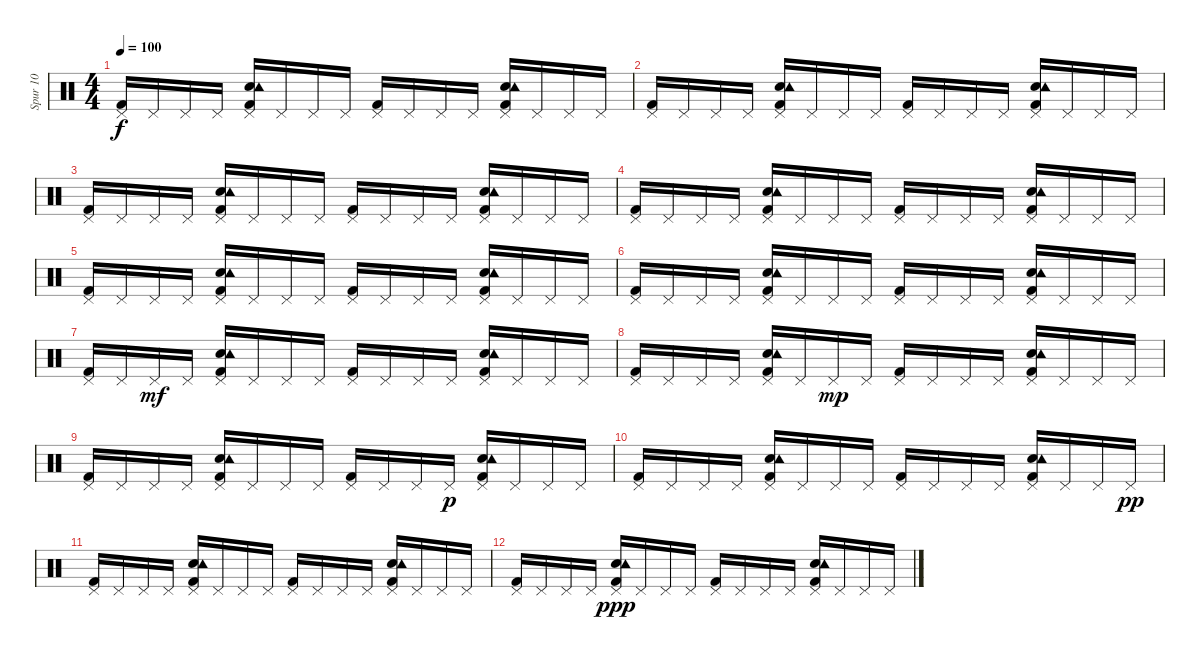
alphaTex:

\track ("Spur 10" "Spur 10") {instrument percussion}
\staff {score}
\articulation defaults
\ts (4 4)
\tempo 100
\clef neutral
\ks c
("Kick (hit) 2" "Pedal Hi-Hat (hit)").16{dy f} "Pedal Hi-Hat (hit)".16 "Pedal Hi-Hat (hit)".16 "Pedal Hi-Hat (hit)".16 ("Snare (hit) 2" "Kick (hit) 2" "Tambourine (hit)" "Pedal Hi-Hat (hit)").16 "Pedal Hi-Hat (hit)".16 "Pedal Hi-Hat (hit)".16 "Pedal Hi-Hat (hit)".16 ("Kick (hit) 2" "Pedal Hi-Hat (hit)").16 "Pedal Hi-Hat (hit)".16 "Pedal Hi-Hat (hit)".16 "Pedal Hi-Hat (hit)".16 ("Kick (hit) 2" "Snare (hit) 2" "Tambourine (hit)" "Pedal Hi-Hat (hit)").16 "Pedal Hi-Hat (hit)".16 "Pedal Hi-Hat (hit)".16 "Pedal Hi-Hat (hit)".16 |
("Kick (hit) 2" "Pedal Hi-Hat (hit)").16 "Pedal Hi-Hat (hit)".16 "Pedal Hi-Hat (hit)".16 "Pedal Hi-Hat (hit)".16 ("Kick (hit) 2" "Snare (hit) 2" "Tambourine (hit)" "Pedal Hi-Hat (hit)").16 "Pedal Hi-Hat (hit)".16 "Pedal Hi-Hat (hit)".16 "Pedal Hi-Hat (hit)".16 ("Kick (hit) 2" "Pedal Hi-Hat (hit)").16 "Pedal Hi-Hat (hit)".16 "Pedal Hi-Hat (hit)".16 "Pedal Hi-Hat (hit)".16 ("Snare (hit) 2" "Kick (hit) 2" "Tambourine (hit)" "Pedal Hi-Hat (hit)").16 "Pedal Hi-Hat (hit)".16 "Pedal Hi-Hat (hit)".16 "Pedal Hi-Hat (hit)".16 |
("Kick (hit) 2" "Pedal Hi-Hat (hit)").16 "Pedal Hi-Hat (hit)".16 "Pedal Hi-Hat (hit)".16 "Pedal Hi-Hat (hit)".16 ("Kick (hit) 2" "Snare (hit) 2" "Tambourine (hit)" "Pedal Hi-Hat (hit)").16 "Pedal Hi-Hat (hit)".16 "Pedal Hi-Hat (hit)".16 "Pedal Hi-Hat (hit)".16 ("Kick (hit) 2" "Pedal Hi-Hat (hit)").16 "Pedal Hi-Hat (hit)".16 "Pedal Hi-Hat (hit)".16 "Pedal Hi-Hat (hit)".16 ("Kick (hit) 2" "Snare (hit) 2" "Tambourine (hit)" "Pedal Hi-Hat (hit)").16 "Pedal Hi-Hat (hit)".16 "Pedal Hi-Hat (hit)".16 "Pedal Hi-Hat (hit)".16 |
("Kick (hit) 2" "Pedal Hi-Hat (hit)").16 "Pedal Hi-Hat (hit)".16 "Pedal Hi-Hat (hit)".16 "Pedal Hi-Hat (hit)".16 ("Snare (hit) 2" "Kick (hit) 2" "Tambourine (hit)" "Pedal Hi-Hat (hit)").16 "Pedal Hi-Hat (hit)".16 "Pedal Hi-Hat (hit)".16 "Pedal Hi-Hat (hit)".16 ("Kick (hit) 2" "Pedal Hi-Hat (hit)").16 "Pedal Hi-Hat (hit)".16 "Pedal Hi-Hat (hit)".16 "Pedal Hi-Hat (hit)".16 ("Kick (hit) 2" "Snare (hit) 2" "Tambourine (hit)" "Pedal Hi-Hat (hit)").16 "Pedal Hi-Hat (hit)".16 "Pedal Hi-Hat (hit)".16 "Pedal Hi-Hat (hit)".16 |
("Kick (hit) 2" "Pedal Hi-Hat (hit)").16 "Pedal Hi-Hat (hit)".16 "Pedal Hi-Hat (hit)".16 "Pedal Hi-Hat (hit)".16 ("Snare (hit) 2" "Kick (hit) 2" "Tambourine (hit)" "Pedal Hi-Hat (hit)").16 "Pedal Hi-Hat (hit)".16 "Pedal Hi-Hat (hit)".16 "Pedal Hi-Hat (hit)".16 ("Kick (hit) 2" "Pedal Hi-Hat (hit)").16 "Pedal Hi-Hat (hit)".16 "Pedal Hi-Hat (hit)".16 "Pedal Hi-Hat (hit)".16 ("Kick (hit) 2" "Snare (hit) 2" "Tambourine (hit)" "Pedal Hi-Hat (hit)").16 "Pedal Hi-Hat (hit)".16 "Pedal Hi-Hat (hit)".16 "Pedal Hi-Hat (hit)".16 |
("Kick (hit) 2" "Pedal Hi-Hat (hit)").16 "Pedal Hi-Hat (hit)".16 "Pedal Hi-Hat (hit)".16 "Pedal Hi-Hat (hit)".16 ("Kick (hit) 2" "Snare (hit) 2" "Tambourine (hit)" "Pedal Hi-Hat (hit)").16 "Pedal Hi-Hat (hit)".16 "Pedal Hi-Hat (hit)".16 "Pedal Hi-Hat (hit)".16 ("Kick (hit) 2" "Pedal Hi-Hat (hit)").16 "Pedal Hi-Hat (hit)".16 "Pedal Hi-Hat (hit)".16 "Pedal Hi-Hat (hit)".16 ("Snare (hit) 2" "Kick (hit) 2" "Tambourine (hit)" "Pedal Hi-Hat (hit)").16 "Pedal Hi-Hat (hit)".16 "Pedal Hi-Hat (hit)".16 "Pedal Hi-Hat (hit)".16 |
("Kick (hit) 2" "Pedal Hi-Hat (hit)").16 "Pedal Hi-Hat (hit)".16 "Pedal Hi-Hat (hit)".16{dy mf} "Pedal Hi-Hat (hit)".16 ("Kick (hit) 2" "Snare (hit) 2" "Tambourine (hit)" "Pedal Hi-Hat (hit)").16 "Pedal Hi-Hat (hit)".16 "Pedal Hi-Hat (hit)".16 "Pedal Hi-Hat (hit)".16 ("Kick (hit) 2" "Pedal Hi-Hat (hit)").16 "Pedal Hi-Hat (hit)".16 "Pedal Hi-Hat (hit)".16 "Pedal Hi-Hat (hit)".16 ("Kick (hit) 2" "Snare (hit) 2" "Tambourine (hit)" "Pedal Hi-Hat (hit)").16 "Pedal Hi-Hat (hit)".16 "Pedal Hi-Hat (hit)".16 "Pedal Hi-Hat (hit)".16 |
("Kick (hit) 2" "Pedal Hi-Hat (hit)").16 "Pedal Hi-Hat (hit)".16 "Pedal Hi-Hat (hit)".16 "Pedal Hi-Hat (hit)".16 ("Snare (hit) 2" "Kick (hit) 2" "Tambourine (hit)" "Pedal Hi-Hat (hit)").16 "Pedal Hi-Hat (hit)".16 "Pedal Hi-Hat (hit)".16{dy mp} "Pedal Hi-Hat (hit)".16 ("Kick (hit) 2" "Pedal Hi-Hat (hit)").16 "Pedal Hi-Hat (hit)".16 "Pedal Hi-Hat (hit)".16 "Pedal Hi-Hat (hit)".16 ("Kick (hit) 2" "Snare (hit) 2" "Tambourine (hit)" "Pedal Hi-Hat (hit)").16 "Pedal Hi-Hat (hit)".16 "Pedal Hi-Hat (hit)".16 "Pedal Hi-Hat (hit)".16 |
("Kick (hit) 2" "Pedal Hi-Hat (hit)").16 "Pedal Hi-Hat (hit)".16 "Pedal Hi-Hat (hit)".16 "Pedal Hi-Hat (hit)".16 ("Snare (hit) 2" "Kick (hit) 2" "Tambourine (hit)" "Pedal Hi-Hat (hit)").16 "Pedal Hi-Hat (hit)".16 "Pedal Hi-Hat (hit)".16 "Pedal Hi-Hat (hit)".16 ("Kick (hit) 2" "Pedal Hi-Hat (hit)").16 "Pedal Hi-Hat (hit)".16 "Pedal Hi-Hat (hit)".16 "Pedal Hi-Hat (hit)".16{dy p} ("Kick (hit) 2" "Snare (hit) 2" "Tambourine (hit)" "Pedal Hi-Hat (hit)").16 "Pedal Hi-Hat (hit)".16 "Pedal Hi-Hat (hit)".16 "Pedal Hi-Hat (hit)".16 |
("Kick (hit) 2" "Pedal Hi-Hat (hit)").16 "Pedal Hi-Hat (hit)".16 "Pedal Hi-Hat (hit)".16 "Pedal Hi-Hat (hit)".16 ("Kick (hit) 2" "Snare (hit) 2" "Tambourine (hit)" "Pedal Hi-Hat (hit)").16 "Pedal Hi-Hat (hit)".16 "Pedal Hi-Hat (hit)".16 "Pedal Hi-Hat (hit)".16 ("Kick (hit) 2" "Pedal Hi-Hat (hit)").16 "Pedal Hi-Hat (hit)".16 "Pedal Hi-Hat (hit)".16 "Pedal Hi-Hat (hit)".16 ("Snare (hit) 2" "Kick (hit) 2" "Tambourine (hit)" "Pedal Hi-Hat (hit)").16 "Pedal Hi-Hat (hit)".16 "Pedal Hi-Hat (hit)".16 "Pedal Hi-Hat (hit)".16{dy pp} |
("Kick (hit) 2" "Pedal Hi-Hat (hit)").16 "Pedal Hi-Hat (hit)".16 "Pedal Hi-Hat (hit)".16 "Pedal Hi-Hat (hit)".16 ("Kick (hit) 2" "Snare (hit) 2" "Tambourine (hit)" "Pedal Hi-Hat (hit)").16 "Pedal Hi-Hat (hit)".16 "Pedal Hi-Hat (hit)".16 "Pedal Hi-Hat (hit)".16 ("Kick (hit) 2" "Pedal Hi-Hat (hit)").16 "Pedal Hi-Hat (hit)".16 "Pedal Hi-Hat (hit)".16 "Pedal Hi-Hat (hit)".16 ("Kick (hit) 2" "Snare (hit) 2" "Tambourine (hit)" "Pedal Hi-Hat (hit)").16 "Pedal Hi-Hat (hit)".16 "Pedal Hi-Hat (hit)".16 "Pedal Hi-Hat (hit)".16 |
("Kick (hit) 2" "Pedal Hi-Hat (hit)").16 "Pedal Hi-Hat (hit)".16 "Pedal Hi-Hat (hit)".16 "Pedal Hi-Hat (hit)".16 ("Snare (hit) 2" "Kick (hit) 2" "Tambourine (hit)" "Pedal Hi-Hat (hit)").16{dy ppp} "Pedal Hi-Hat (hit)".16 "Pedal Hi-Hat (hit)".16 "Pedal Hi-Hat (hit)".16 ("Kick (hit) 2" "Pedal Hi-Hat (hit)").16 "Pedal Hi-Hat (hit)".16 "Pedal Hi-Hat (hit)".16 "Pedal Hi-Hat (hit)".16 ("Kick (hit) 2" "Snare (hit) 2" "Tambourine (hit)" "Pedal Hi-Hat (hit)").16 "Pedal Hi-Hat (hit)".16 "Pedal Hi-Hat (hit)".16 "Pedal Hi-Hat (hit)".16
